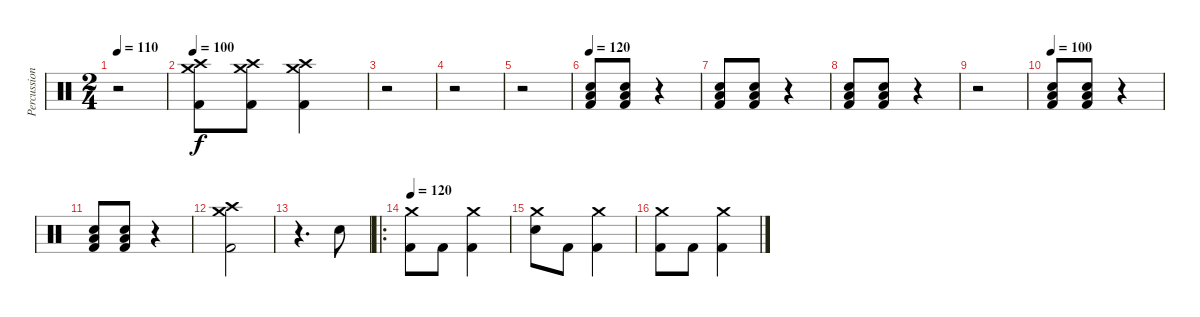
\track ("Percussion" "Percussion") {instrument percussion}
\staff {score}
\articulation defaults
\ts (2 4)
\tempo 110
\clef neutral
\ks c
r.2{dy f} |
\tempo 100
("Crash medium (hit)" "Crash high (hit)" "Kick (hit) 2").8 ("Crash medium (hit)" "Crash high (hit)" "Kick (hit) 2").8 ("Crash medium (hit)" "Crash high (hit)" "Kick (hit) 2").4 |
r.2 |
r.2 |
r.2 |
\tempo 100
\tempo 120
("Snare (hit) 2" "Low Floor Tom (hit)" "Kick (hit) 2").8 ("Snare (hit) 2" "Low Floor Tom (hit)" "Kick (hit) 2").8 r.4 |
("Snare (hit) 2" "Low Floor Tom (hit)" "Kick (hit) 2").8 ("Snare (hit) 2" "Low Floor Tom (hit)" "Kick (hit) 2").8 r.4 |
("Snare (hit) 2" "Low Floor Tom (hit)" "Kick (hit) 2").8 ("Snare (hit) 2" "Low Floor Tom (hit)" "Kick (hit) 2").8 r.4 |
r.2 |
\tempo 100
("Snare (hit) 2" "Low Floor Tom (hit)" "Kick (hit) 2").8 ("Snare (hit) 2" "Low Floor Tom (hit)" "Kick (hit) 2").8 r.4 |
("Snare (hit) 2" "Low Floor Tom (hit)" "Kick (hit) 2").8 ("Snare (hit) 2" "Low Floor Tom (hit)" "Kick (hit) 2").8 r.4 |
("Crash medium (hit)" "Crash high (hit)" "Kick (hit) 2").2 |
r.4{d} "Snare (hit) 2".8 |
\ro
\tempo 120
("Crash medium (hit)" "Kick (hit) 2").8 "Kick (hit) 2".8 ("Crash medium (hit)" "Kick (hit) 2").4 |
("Crash medium (hit)" "Snare (hit) 2").8 "Kick (hit) 2".8 ("Crash medium (hit)" "Kick (hit) 2").4 |
("Crash medium (hit)" "Kick (hit) 2").8 "Kick (hit) 2".8 ("Crash medium (hit)" "Kick (hit) 2").4
